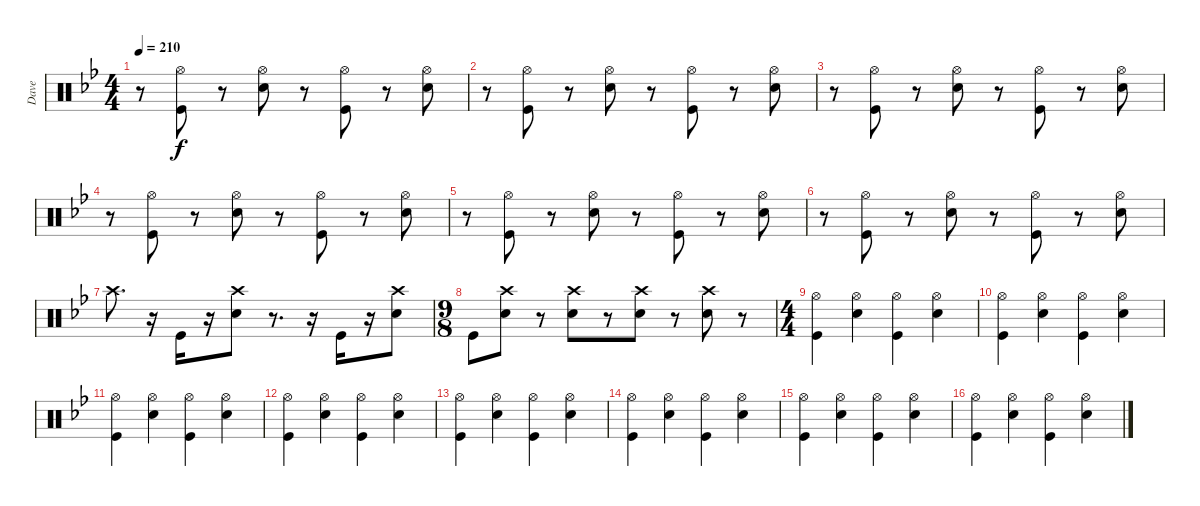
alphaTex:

\track ("Dave" "Dave") {instrument percussion}
\staff {score}
\articulation defaults
\ts (4 4)
\tempo 210
\clef neutral
\ks gminor
r.8{dy f} ("Hi-Hat (open)" "Kick (hit)").8 r.8 ("Hi-Hat (open)" "Snare (hit) 2").8 r.8 ("Hi-Hat (open)" "Kick (hit)").8 r.8 ("Hi-Hat (open)" "Snare (hit) 2").8 |
r.8 ("Hi-Hat (open)" "Kick (hit)").8 r.8 ("Hi-Hat (open)" "Snare (hit) 2").8 r.8 ("Hi-Hat (open)" "Kick (hit)").8 r.8 ("Hi-Hat (open)" "Snare (hit) 2").8 |
r.8 ("Hi-Hat (open)" "Kick (hit)").8 r.8 ("Hi-Hat (open)" "Snare (hit) 2").8 r.8 ("Hi-Hat (open)" "Kick (hit)").8 r.8 ("Hi-Hat (open)" "Snare (hit) 2").8 |
r.8 ("Hi-Hat (open)" "Kick (hit)").8 r.8 ("Hi-Hat (open)" "Snare (hit) 2").8 r.8 ("Hi-Hat (open)" "Kick (hit)").8 r.8 ("Hi-Hat (open)" "Snare (hit) 2").8 |
r.8 ("Hi-Hat (open)" "Kick (hit)").8 r.8 ("Hi-Hat (open)" "Snare (hit) 2").8 r.8 ("Hi-Hat (open)" "Kick (hit)").8 r.8 ("Hi-Hat (open)" "Snare (hit) 2").8 |
r.8 ("Hi-Hat (open)" "Kick (hit)").8 r.8 ("Hi-Hat (open)" "Snare (hit) 2").8 r.8 ("Hi-Hat (open)" "Kick (hit)").8 r.8 ("Hi-Hat (open)" "Snare (hit) 2").8 |
"Crash high (hit)".8{d} r.16 "Kick (hit)".16 r.16 ("Crash high (hit)" "Snare (hit) 2").8 r.8{d} r.16 "Kick (hit)".16 r.16 ("Crash high (hit)" "Snare (hit) 2").8 |
\ts (9 8)
"Kick (hit)".8 ("Crash high (hit)" "Snare (hit) 2").8 r.8 ("Crash high (hit)" "Snare (hit) 2").8 r.8 ("Crash high (hit)" "Snare (hit) 2").8 r.8 ("Crash high (hit)" "Snare (hit) 2").8 r.8 |
\ts (4 4)
("Hi-Hat (open)" "Kick (hit)").4 ("Hi-Hat (open)" "Snare (hit) 2").4 ("Hi-Hat (open)" "Kick (hit)").4 ("Hi-Hat (open)" "Snare (hit) 2").4 |
("Hi-Hat (open)" "Kick (hit)").4 ("Hi-Hat (open)" "Snare (hit) 2").4 ("Hi-Hat (open)" "Kick (hit)").4 ("Hi-Hat (open)" "Snare (hit) 2").4 |
("Hi-Hat (open)" "Kick (hit)").4 ("Hi-Hat (open)" "Snare (hit) 2").4 ("Hi-Hat (open)" "Kick (hit)").4 ("Hi-Hat (open)" "Snare (hit) 2").4 |
("Hi-Hat (open)" "Kick (hit)").4 ("Hi-Hat (open)" "Snare (hit) 2").4 ("Hi-Hat (open)" "Kick (hit)").4 ("Hi-Hat (open)" "Snare (hit) 2").4 |
("Hi-Hat (open)" "Kick (hit)").4 ("Hi-Hat (open)" "Snare (hit) 2").4 ("Hi-Hat (open)" "Kick (hit)").4 ("Hi-Hat (open)" "Snare (hit) 2").4 |
("Hi-Hat (open)" "Kick (hit)").4 ("Hi-Hat (open)" "Snare (hit) 2").4 ("Hi-Hat (open)" "Kick (hit)").4 ("Hi-Hat (open)" "Snare (hit) 2").4 |
("Hi-Hat (open)" "Kick (hit)").4 ("Hi-Hat (open)" "Snare (hit) 2").4 ("Hi-Hat (open)" "Kick (hit)").4 ("Hi-Hat (open)" "Snare (hit) 2").4 |
("Hi-Hat (open)" "Kick (hit)").4 ("Hi-Hat (open)" "Snare (hit) 2").4 ("Hi-Hat (open)" "Kick (hit)").4 ("Hi-Hat (open)" "Snare (hit) 2").4
